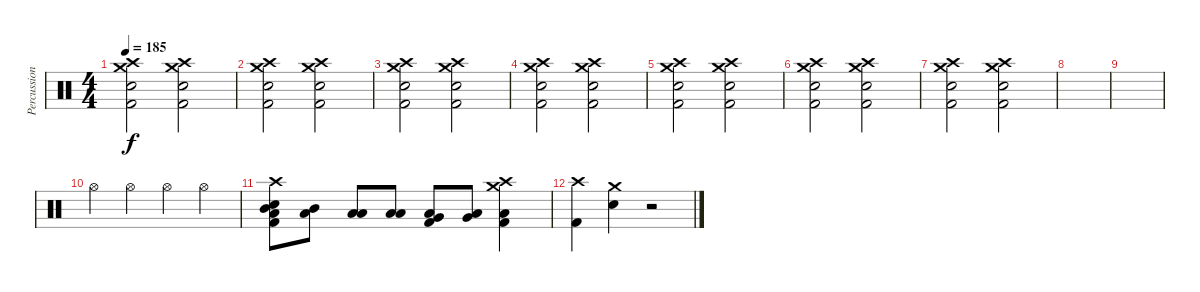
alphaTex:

\track ("Percussion" "Percussion") {instrument percussion}
\staff {score}
\articulation defaults
\ts (4 4)
\tempo 185
\clef neutral
\ks c
("Crash medium (hit)" "Crash high (hit)" "Snare (hit) 2" "Kick (hit) 2").2{dy f} ("Crash medium (hit)" "Crash high (hit)" "Snare (hit) 2" "Kick (hit) 2").2 |
("Crash medium (hit)" "Crash high (hit)" "Snare (hit) 2" "Kick (hit) 2").2 ("Crash medium (hit)" "Crash high (hit)" "Snare (hit) 2" "Kick (hit) 2").2 |
("Crash medium (hit)" "Crash high (hit)" "Snare (hit) 2" "Kick (hit) 2").2 ("Crash medium (hit)" "Crash high (hit)" "Snare (hit) 2" "Kick (hit) 2").2 |
("Crash medium (hit)" "Crash high (hit)" "Snare (hit) 2" "Kick (hit) 2").2 ("Crash medium (hit)" "Crash high (hit)" "Snare (hit) 2" "Kick (hit) 2").2 |
("Crash medium (hit)" "Crash high (hit)" "Snare (hit) 2" "Kick (hit) 2").2 ("Crash medium (hit)" "Crash high (hit)" "Snare (hit) 2" "Kick (hit) 2").2 |
("Crash medium (hit)" "Crash high (hit)" "Snare (hit) 2" "Kick (hit) 2").2 ("Crash medium (hit)" "Crash high (hit)" "Snare (hit) 2" "Kick (hit) 2").2 |
("Crash medium (hit)" "Crash high (hit)" "Snare (hit) 2" "Kick (hit) 2").2 ("Crash medium (hit)" "Crash high (hit)" "Snare (hit) 2" "Kick (hit) 2").2 |
|
|
"Hi-Hat (open)".4 "Hi-Hat (open)".4 "Hi-Hat (open)".4 "Hi-Hat (open)".4 |
("Crash high (hit)" "Mid Tom (hit)" "Low Floor Tom (hit)" "Snare (hit) 2" "Kick (hit) 2").8 ("Mid Tom (hit)" "Low Floor Tom (hit)").8 ("Low Tom (hit)" "Low Floor Tom (hit)").8 ("Low Tom (hit)" "Low Floor Tom (hit)").8 ("Very Low Tom (hit)" "Low Floor Tom (hit)" "Kick (hit) 2").8 ("Very Low Tom (hit)" "Low Floor Tom (hit)").8 ("Crash medium (hit)" "Crash high (hit)" "Low Floor Tom (hit)" "Kick (hit) 2").4 |
("Crash high (hit)" "Kick (hit) 2").4 ("Crash medium (hit)" "Snare (hit) 2").4 r.2
